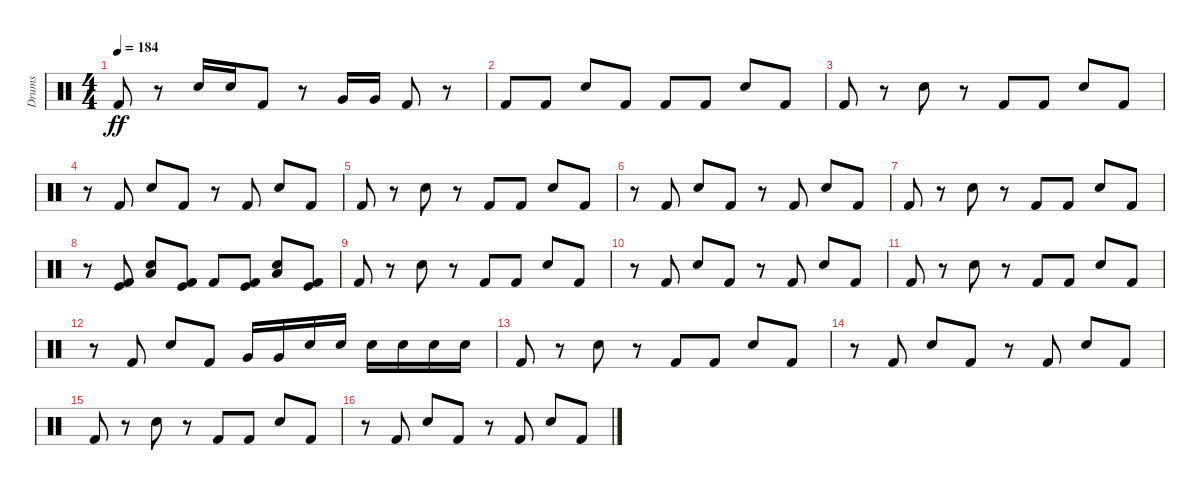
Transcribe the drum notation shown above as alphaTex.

\track ("Drums" "Drums") {instrument percussion}
\staff {score}
\articulation defaults
\ts (4 4)
\tempo 184
\clef neutral
\ks c "Kick (hit) 2".8{dy ff}
r.8 "Electric Snare (hit)".16 "Electric Snare (hit)".16 "Kick (hit) 2".8 r.8 "Very Low Tom (hit)".16 "Very Low Tom (hit)".16 "Kick (hit) 2".8 r.8 |
"Kick (hit) 2".8 "Kick (hit) 2".8 "Electric Snare (hit)".8 "Kick (hit) 2".8 "Kick (hit) 2".8 "Kick (hit) 2".8 "Electric Snare (hit)".8 "Kick (hit) 2".8 |
"Kick (hit) 2".8 r.8 "Electric Snare (hit)".8 r.8 "Kick (hit) 2".8 "Kick (hit) 2".8 "Electric Snare (hit)".8 "Kick (hit) 2".8 |
r.8 "Kick (hit) 2".8 "Electric Snare (hit)".8 "Kick (hit) 2".8 r.8 "Kick (hit) 2".8 "Electric Snare (hit)".8 "Kick (hit) 2".8 |
"Kick (hit) 2".8 r.8 "Electric Snare (hit)".8 r.8 "Kick (hit) 2".8 "Kick (hit) 2".8 "Electric Snare (hit)".8 "Kick (hit) 2".8 |
r.8 "Kick (hit) 2".8 "Electric Snare (hit)".8 "Kick (hit) 2".8 r.8 "Kick (hit) 2".8 "Electric Snare (hit)".8 "Kick (hit) 2".8 |
"Kick (hit) 2".8 r.8 "Electric Snare (hit)".8 r.8 "Kick (hit) 2".8 "Kick (hit) 2".8 "Electric Snare (hit)".8 "Kick (hit) 2".8 |
r.8 ("Kick (hit)" "Kick (hit) 2").8 ("Electric Snare (hit)" "Low Floor Tom (hit)").8 ("Kick (hit)" "Kick (hit) 2").8 "Kick (hit) 2".8 ("Kick (hit)" "Kick (hit) 2").8 ("Electric Snare (hit)" "Low Floor Tom (hit)").8 ("Kick (hit)" "Kick (hit) 2").8 |
"Kick (hit) 2".8 r.8 "Electric Snare (hit)".8 r.8 "Kick (hit) 2".8 "Kick (hit) 2".8 "Electric Snare (hit)".8 "Kick (hit) 2".8 |
r.8 "Kick (hit) 2".8 "Electric Snare (hit)".8 "Kick (hit) 2".8 r.8 "Kick (hit) 2".8 "Electric Snare (hit)".8 "Kick (hit) 2".8 |
"Kick (hit) 2".8 r.8 "Electric Snare (hit)".8 r.8 "Kick (hit) 2".8 "Kick (hit) 2".8 "Electric Snare (hit)".8 "Kick (hit) 2".8 |
r.8 "Kick (hit) 2".8 "Electric Snare (hit)".8 "Kick (hit) 2".8 "Very Low Tom (hit)".16 "Very Low Tom (hit)".16 "Electric Snare (hit)".16 "Electric Snare (hit)".16 "Electric Snare (hit)".16 "Electric Snare (hit)".16 "Electric Snare (hit)".16 "Electric Snare (hit)".16 |
"Kick (hit) 2".8 r.8 "Electric Snare (hit)".8 r.8 "Kick (hit) 2".8 "Kick (hit) 2".8 "Electric Snare (hit)".8 "Kick (hit) 2".8 |
r.8 "Kick (hit) 2".8 "Electric Snare (hit)".8 "Kick (hit) 2".8 r.8 "Kick (hit) 2".8 "Electric Snare (hit)".8 "Kick (hit) 2".8 |
"Kick (hit) 2".8 r.8 "Electric Snare (hit)".8 r.8 "Kick (hit) 2".8 "Kick (hit) 2".8 "Electric Snare (hit)".8 "Kick (hit) 2".8 |
r.8 "Kick (hit) 2".8 "Electric Snare (hit)".8 "Kick (hit) 2".8 r.8 "Kick (hit) 2".8 "Electric Snare (hit)".8 "Kick (hit) 2".8
